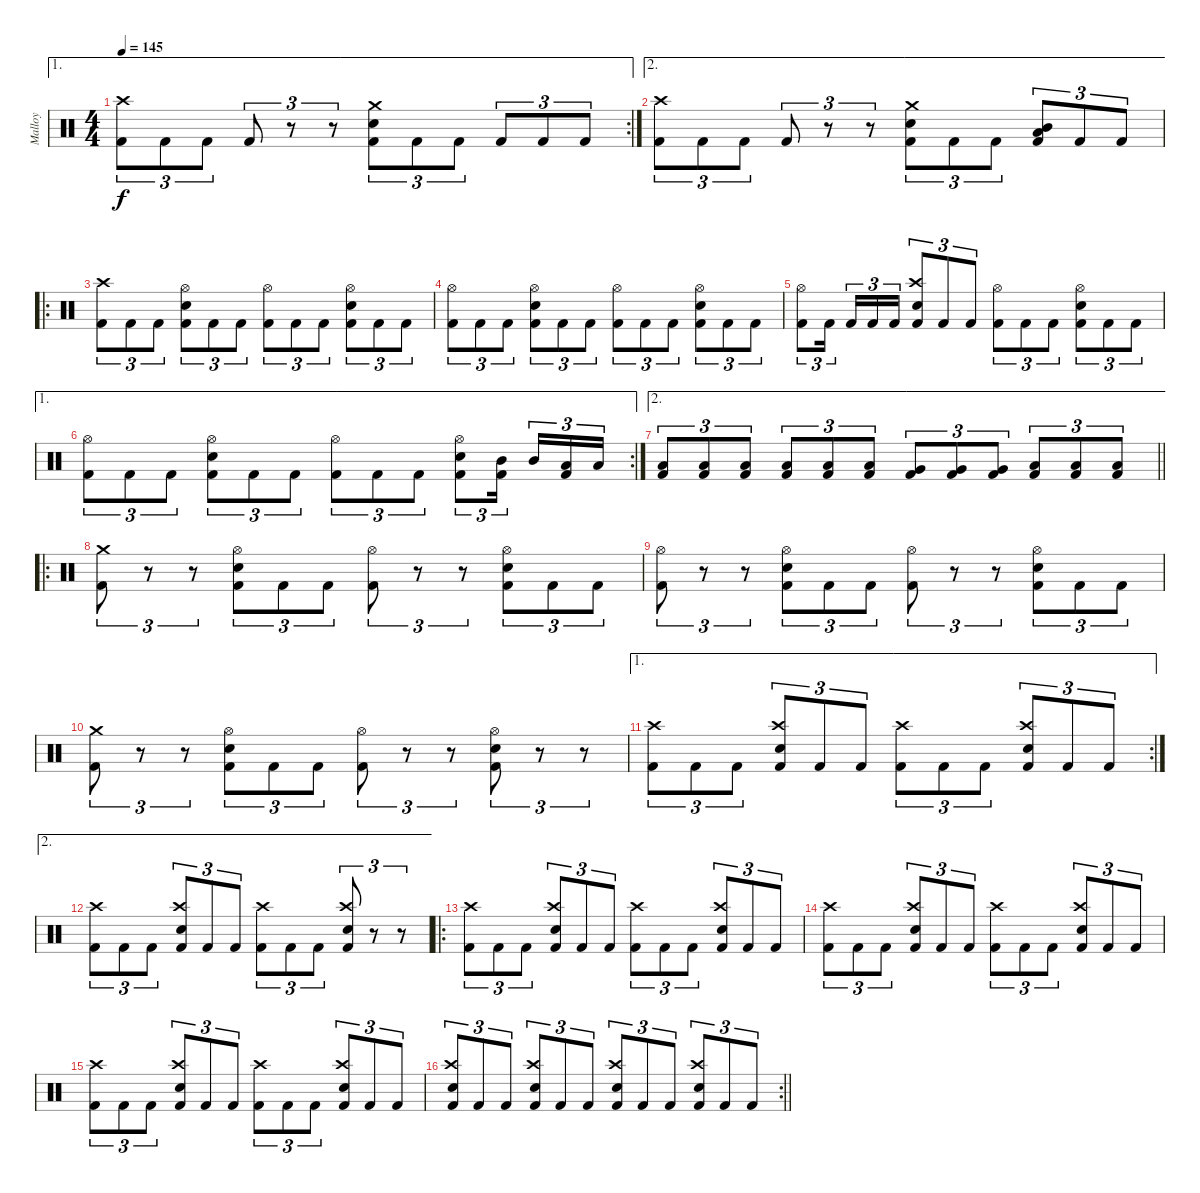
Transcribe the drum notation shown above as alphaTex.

\track ("Malloy" "Malloy") {instrument percussion}
\staff {score}
\articulation defaults
\ae 1
\rc 2
\ts (4 4)
\tempo 145
\clef neutral
\ks c
("Kick (hit) 2" "Crash high (hit)").8{tu (3 2) dy f} "Kick (hit) 2".8{tu (3 2)} "Kick (hit) 2".8{tu (3 2)} "Kick (hit) 2".8{tu (3 2)} r.8{tu (3 2)} r.8{tu (3 2)} ("Kick (hit) 2" "Electric Snare (hit)" "Crash medium (hit)").8{tu (3 2)} "Kick (hit) 2".8{tu (3 2)} "Kick (hit) 2".8{tu (3 2)} "Kick (hit) 2".8{tu (3 2)} "Kick (hit) 2".8{tu (3 2)} "Kick (hit) 2".8{tu (3 2)} |
\ae 2
("Kick (hit) 2" "Crash high (hit)").8{tu (3 2)} "Kick (hit) 2".8{tu (3 2)} "Kick (hit) 2".8{tu (3 2)} "Kick (hit) 2".8{tu (3 2)} r.8{tu (3 2)} r.8{tu (3 2)} ("Kick (hit) 2" "Electric Snare (hit)" "Crash medium (hit)").8{tu (3 2)} "Kick (hit) 2".8{tu (3 2)} "Kick (hit) 2".8{tu (3 2)} ("Kick (hit) 2" "Mid Tom (hit)" "Low Floor Tom (hit)").8{tu (3 2)} "Kick (hit) 2".8{tu (3 2)} "Kick (hit) 2".8{tu (3 2)} |
\ro
("Kick (hit) 2" "Crash high (hit)").8{tu (3 2)} "Kick (hit) 2".8{tu (3 2)} "Kick (hit) 2".8{tu (3 2)} ("Kick (hit) 2" "Electric Snare (hit)" "Hi-Hat (open)").8{tu (3 2)} "Kick (hit) 2".8{tu (3 2)} "Kick (hit) 2".8{tu (3 2)} ("Kick (hit) 2" "Hi-Hat (open)").8{tu (3 2)} "Kick (hit) 2".8{tu (3 2)} "Kick (hit) 2".8{tu (3 2)} ("Kick (hit) 2" "Electric Snare (hit)" "Hi-Hat (open)").8{tu (3 2)} "Kick (hit) 2".8{tu (3 2)} "Kick (hit) 2".8{tu (3 2)} |
("Kick (hit) 2" "Hi-Hat (open)").8{tu (3 2)} "Kick (hit) 2".8{tu (3 2)} "Kick (hit) 2".8{tu (3 2)} ("Kick (hit) 2" "Electric Snare (hit)" "Hi-Hat (open)").8{tu (3 2)} "Kick (hit) 2".8{tu (3 2)} "Kick (hit) 2".8{tu (3 2)} ("Kick (hit) 2" "Hi-Hat (open)").8{tu (3 2)} "Kick (hit) 2".8{tu (3 2)} "Kick (hit) 2".8{tu (3 2)} ("Kick (hit) 2" "Electric Snare (hit)" "Hi-Hat (open)").8{tu (3 2)} "Kick (hit) 2".8{tu (3 2)} "Kick (hit) 2".8{tu (3 2)} |
("Kick (hit) 2" "Hi-Hat (open)").8{tu (3 2)} "Kick (hit) 2".16{tu (3 2) beam splitsecondary} "Kick (hit) 2".16{tu (3 2)} "Kick (hit) 2".16{tu (3 2)} "Kick (hit) 2".16{tu (3 2)} ("Kick (hit) 2" "Electric Snare (hit)" "Crash high (hit)").8{tu (3 2)} "Kick (hit) 2".8{tu (3 2)} "Kick (hit) 2".8{tu (3 2)} ("Kick (hit) 2" "Hi-Hat (open)").8{tu (3 2)} "Kick (hit) 2".8{tu (3 2)} "Kick (hit) 2".8{tu (3 2)} ("Kick (hit) 2" "Electric Snare (hit)" "Hi-Hat (open)").8{tu (3 2)} "Kick (hit) 2".8{tu (3 2)} "Kick (hit) 2".8{tu (3 2)} |
\ae 1
\rc 2
("Kick (hit) 2" "Hi-Hat (open)").8{tu (3 2)} "Kick (hit) 2".8{tu (3 2)} "Kick (hit) 2".8{tu (3 2)} ("Kick (hit) 2" "Electric Snare (hit)" "Hi-Hat (open)").8{tu (3 2)} "Kick (hit) 2".8{tu (3 2)} "Kick (hit) 2".8{tu (3 2)} ("Kick (hit) 2" "Hi-Hat (open)").8{tu (3 2)} "Kick (hit) 2".8{tu (3 2)} "Kick (hit) 2".8{tu (3 2)} ("Kick (hit) 2" "Electric Snare (hit)" "Hi-Hat (open)").8{tu (3 2)} ("Kick (hit) 2" "Mid Tom (hit)").16{tu (3 2) beam splitsecondary} "Mid Tom (hit)".16{tu (3 2)} ("Kick (hit) 2" "Low Tom (hit)").16{tu (3 2)} "Low Tom (hit)".16{tu (3 2)} |
\ae 2
\barLineRight lightlight
("Kick (hit) 2" "Low Tom (hit)").8{tu (3 2)} ("Kick (hit) 2" "Low Tom (hit)").8{tu (3 2)} ("Kick (hit) 2" "Low Tom (hit)").8{tu (3 2)} ("Kick (hit) 2" "Low Tom (hit)").8{tu (3 2)} ("Kick (hit) 2" "Low Tom (hit)").8{tu (3 2)} ("Kick (hit) 2" "Low Tom (hit)").8{tu (3 2)} ("Kick (hit) 2" "Very Low Tom (hit)").8{tu (3 2)} ("Kick (hit) 2" "Very Low Tom (hit)").8{tu (3 2)} ("Kick (hit) 2" "Very Low Tom (hit)").8{tu (3 2)} ("Kick (hit) 2" "Low Floor Tom (hit)").8{tu (3 2)} ("Kick (hit) 2" "Low Floor Tom (hit)").8{tu (3 2)} ("Kick (hit) 2" "Low Floor Tom (hit)").8{tu (3 2)} |
\ro
("Kick (hit) 2" "Crash medium (hit)").8{tu (3 2)} r.8{tu (3 2)} r.8{tu (3 2)} ("Kick (hit) 2" "Electric Snare (hit)" "Hi-Hat (open)").8{tu (3 2)} "Kick (hit) 2".8{tu (3 2)} "Kick (hit) 2".8{tu (3 2)} ("Kick (hit) 2" "Hi-Hat (open)").8{tu (3 2)} r.8{tu (3 2)} r.8{tu (3 2)} ("Kick (hit) 2" "Electric Snare (hit)" "Hi-Hat (open)").8{tu (3 2)} "Kick (hit) 2".8{tu (3 2)} "Kick (hit) 2".8{tu (3 2)} |
("Kick (hit) 2" "Hi-Hat (open)").8{tu (3 2)} r.8{tu (3 2)} r.8{tu (3 2)} ("Kick (hit) 2" "Electric Snare (hit)" "Hi-Hat (open)").8{tu (3 2)} "Kick (hit) 2".8{tu (3 2)} "Kick (hit) 2".8{tu (3 2)} ("Kick (hit) 2" "Hi-Hat (open)").8{tu (3 2)} r.8{tu (3 2)} r.8{tu (3 2)} ("Kick (hit) 2" "Electric Snare (hit)" "Hi-Hat (open)").8{tu (3 2)} "Kick (hit) 2".8{tu (3 2)} "Kick (hit) 2".8{tu (3 2)} |
("Kick (hit) 2" "Crash medium (hit)").8{tu (3 2)} r.8{tu (3 2)} r.8{tu (3 2)} ("Kick (hit) 2" "Electric Snare (hit)" "Hi-Hat (open)").8{tu (3 2)} "Kick (hit) 2".8{tu (3 2)} "Kick (hit) 2".8{tu (3 2)} ("Kick (hit) 2" "Hi-Hat (open)").8{tu (3 2)} r.8{tu (3 2)} r.8{tu (3 2)} ("Kick (hit) 2" "Electric Snare (hit)" "Hi-Hat (open)").8{tu (3 2)} r.8{tu (3 2)} r.8{tu (3 2)} |
\ae 1
\rc 2
("Kick (hit) 2" "Crash high (hit)").8{tu (3 2)} "Kick (hit) 2".8{tu (3 2)} "Kick (hit) 2".8{tu (3 2)} ("Kick (hit) 2" "Electric Snare (hit)" "Crash high (hit)").8{tu (3 2)} "Kick (hit) 2".8{tu (3 2)} "Kick (hit) 2".8{tu (3 2)} ("Kick (hit) 2" "Crash high (hit)").8{tu (3 2)} "Kick (hit) 2".8{tu (3 2)} "Kick (hit) 2".8{tu (3 2)} ("Kick (hit) 2" "Electric Snare (hit)" "Crash high (hit)").8{tu (3 2)} "Kick (hit) 2".8{tu (3 2)} "Kick (hit) 2".8{tu (3 2)} |
\ae 2
("Kick (hit) 2" "Crash high (hit)").8{tu (3 2)} "Kick (hit) 2".8{tu (3 2)} "Kick (hit) 2".8{tu (3 2)} ("Kick (hit) 2" "Electric Snare (hit)" "Crash high (hit)").8{tu (3 2)} "Kick (hit) 2".8{tu (3 2)} "Kick (hit) 2".8{tu (3 2)} ("Kick (hit) 2" "Crash high (hit)").8{tu (3 2)} "Kick (hit) 2".8{tu (3 2)} "Kick (hit) 2".8{tu (3 2)} ("Kick (hit) 2" "Electric Snare (hit)" "Crash high (hit)").8{tu (3 2)} r.8{tu (3 2)} r.8{tu (3 2)} |
\ro
("Kick (hit) 2" "Crash high (hit)").8{tu (3 2)} "Kick (hit) 2".8{tu (3 2)} "Kick (hit) 2".8{tu (3 2)} ("Kick (hit) 2" "Electric Snare (hit)" "Crash high (hit)").8{tu (3 2)} "Kick (hit) 2".8{tu (3 2)} "Kick (hit) 2".8{tu (3 2)} ("Kick (hit) 2" "Crash high (hit)").8{tu (3 2)} "Kick (hit) 2".8{tu (3 2)} "Kick (hit) 2".8{tu (3 2)} ("Kick (hit) 2" "Electric Snare (hit)" "Crash high (hit)").8{tu (3 2)} "Kick (hit) 2".8{tu (3 2)} "Kick (hit) 2".8{tu (3 2)} |
("Kick (hit) 2" "Crash high (hit)").8{tu (3 2)} "Kick (hit) 2".8{tu (3 2)} "Kick (hit) 2".8{tu (3 2)} ("Kick (hit) 2" "Electric Snare (hit)" "Crash high (hit)").8{tu (3 2)} "Kick (hit) 2".8{tu (3 2)} "Kick (hit) 2".8{tu (3 2)} ("Kick (hit) 2" "Crash high (hit)").8{tu (3 2)} "Kick (hit) 2".8{tu (3 2)} "Kick (hit) 2".8{tu (3 2)} ("Kick (hit) 2" "Electric Snare (hit)" "Crash high (hit)").8{tu (3 2)} "Kick (hit) 2".8{tu (3 2)} "Kick (hit) 2".8{tu (3 2)} |
("Kick (hit) 2" "Crash high (hit)").8{tu (3 2)} "Kick (hit) 2".8{tu (3 2)} "Kick (hit) 2".8{tu (3 2)} ("Kick (hit) 2" "Electric Snare (hit)" "Crash high (hit)").8{tu (3 2)} "Kick (hit) 2".8{tu (3 2)} "Kick (hit) 2".8{tu (3 2)} ("Kick (hit) 2" "Crash high (hit)").8{tu (3 2)} "Kick (hit) 2".8{tu (3 2)} "Kick (hit) 2".8{tu (3 2)} ("Kick (hit) 2" "Electric Snare (hit)" "Crash high (hit)").8{tu (3 2)} "Kick (hit) 2".8{tu (3 2)} "Kick (hit) 2".8{tu (3 2)} |
\rc 2
\barLineRight lightlight
("Kick (hit) 2" "Electric Snare (hit)" "Crash high (hit)").8{tu (3 2)} "Kick (hit) 2".8{tu (3 2)} "Kick (hit) 2".8{tu (3 2)} ("Kick (hit) 2" "Electric Snare (hit)" "Crash high (hit)").8{tu (3 2)} "Kick (hit) 2".8{tu (3 2)} "Kick (hit) 2".8{tu (3 2)} ("Kick (hit) 2" "Electric Snare (hit)" "Crash high (hit)").8{tu (3 2)} "Kick (hit) 2".8{tu (3 2)} "Kick (hit) 2".8{tu (3 2)} ("Kick (hit) 2" "Electric Snare (hit)" "Crash high (hit)").8{tu (3 2)} "Kick (hit) 2".8{tu (3 2)} "Kick (hit) 2".8{tu (3 2)}
